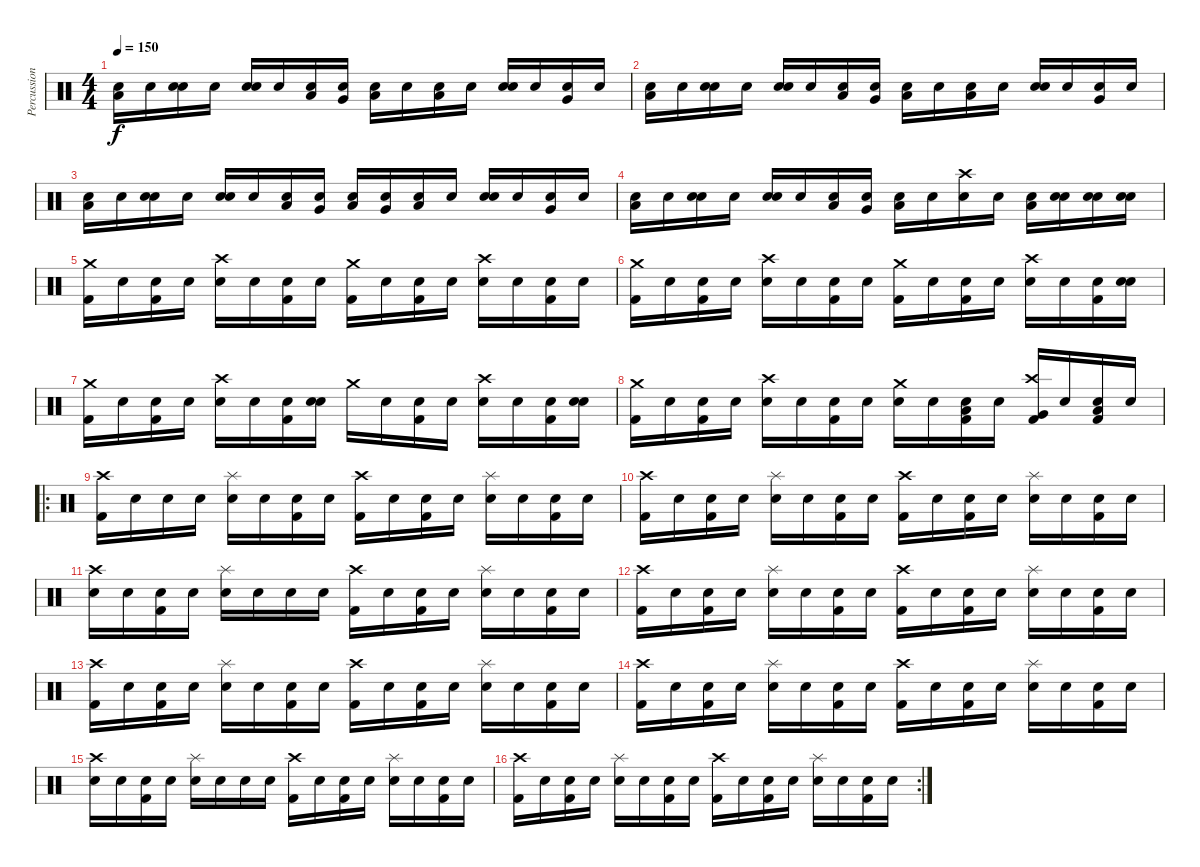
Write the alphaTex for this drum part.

\track ("Percussion" "Percussion") {instrument percussion}
\staff {score}
\articulation defaults
\ts (4 4)
\tempo 150
\clef neutral
\ks c
("Snare (hit)" "Low Floor Tom (hit)").16{dy f} "Snare (hit)".16 ("Snare (hit)" "Snare (hit)").16 "Snare (hit)".16 ("Snare (hit)" "Electric Snare (hit)").16 "Snare (hit)".16 ("Snare (hit)" "Low Tom (hit)").16 ("Snare (hit)" "Very Low Tom (hit)").16 ("Snare (hit)" "Low Floor Tom (hit)").16 "Snare (hit)".16 ("Snare (hit)" "Low Floor Tom (hit)").16 "Snare (hit)".16 ("Snare (hit)" "Electric Snare (hit)").16 "Snare (hit)".16 ("Snare (hit)" "Very Low Tom (hit)").16 "Snare (hit)".16 |
("Snare (hit)" "Low Floor Tom (hit)").16 "Snare (hit)".16 ("Snare (hit)" "Snare (hit)").16 "Snare (hit)".16 ("Snare (hit)" "Electric Snare (hit)").16 "Snare (hit)".16 ("Snare (hit)" "Low Tom (hit)").16 ("Snare (hit)" "Very Low Tom (hit)").16 ("Snare (hit)" "Low Floor Tom (hit)").16 "Snare (hit)".16 ("Snare (hit)" "Low Floor Tom (hit)").16 "Snare (hit)".16 ("Snare (hit)" "Electric Snare (hit)").16 "Snare (hit)".16 ("Snare (hit)" "Very Low Tom (hit)").16 "Snare (hit)".16 |
("Snare (hit)" "Low Floor Tom (hit)").16 "Snare (hit)".16 ("Snare (hit)" "Snare (hit)").16 "Snare (hit)".16 ("Snare (hit)" "Electric Snare (hit)").16 "Snare (hit)".16 ("Snare (hit)" "Low Tom (hit)").16 ("Snare (hit)" "Very Low Tom (hit)").16 ("Snare (hit)" "Low Floor Tom (hit)").16 ("Snare (hit)" "Very Low Tom (hit)").16 ("Snare (hit)" "Low Floor Tom (hit)").16 "Snare (hit)".16 ("Snare (hit)" "Electric Snare (hit)").16 "Snare (hit)".16 ("Snare (hit)" "Very Low Tom (hit)").16 "Snare (hit)".16 |
("Snare (hit)" "Low Floor Tom (hit)").16 "Snare (hit)".16 ("Snare (hit)" "Snare (hit)").16 "Snare (hit)".16 ("Snare (hit)" "Electric Snare (hit)").16 "Snare (hit)".16 ("Snare (hit)" "Low Tom (hit)").16 ("Snare (hit)" "Very Low Tom (hit)").16 ("Snare (hit)" "Low Floor Tom (hit)").16 "Snare (hit)".16 ("Snare (hit)" "Crash high (hit)").16 "Snare (hit)".16 ("Snare (hit)" "Low Floor Tom (hit)").16 ("Snare (hit)" "Electric Snare (hit)").16 ("Snare (hit)" "Electric Snare (hit)").16 ("Snare (hit)" "Electric Snare (hit)").16 |
("Crash medium (hit)" "Kick (hit) 2").16 "Snare (hit)".16 ("Snare (hit)" "Kick (hit) 2").16 "Snare (hit)".16 ("Crash high (hit)" "Electric Snare (hit)").16 "Snare (hit)".16 ("Snare (hit)" "Kick (hit) 2").16 "Snare (hit)".16 ("Crash medium (hit)" "Kick (hit) 2").16 "Snare (hit)".16 ("Snare (hit)" "Kick (hit) 2").16 "Snare (hit)".16 ("Crash high (hit)" "Electric Snare (hit)").16 "Snare (hit)".16 ("Snare (hit)" "Kick (hit) 2").16 "Snare (hit)".16 |
("Crash medium (hit)" "Kick (hit) 2").16 "Snare (hit)".16 ("Snare (hit)" "Kick (hit) 2").16 "Snare (hit)".16 ("Crash high (hit)" "Electric Snare (hit)").16 "Snare (hit)".16 ("Snare (hit)" "Kick (hit) 2").16 "Snare (hit)".16 ("Crash medium (hit)" "Kick (hit) 2").16 "Snare (hit)".16 ("Snare (hit)" "Kick (hit) 2").16 "Snare (hit)".16 ("Crash high (hit)" "Electric Snare (hit)").16 "Snare (hit)".16 ("Snare (hit)" "Kick (hit) 2").16 ("Snare (hit)" "Electric Snare (hit)").16 |
("Crash medium (hit)" "Kick (hit) 2").16 "Snare (hit)".16 ("Snare (hit)" "Kick (hit) 2").16 "Snare (hit)".16 ("Crash high (hit)" "Electric Snare (hit)").16 "Snare (hit)".16 ("Snare (hit)" "Kick (hit) 2").16 ("Snare (hit)" "Electric Snare (hit)").16 "Crash medium (hit)".16 "Snare (hit)".16 ("Snare (hit)" "Kick (hit) 2").16 "Snare (hit)".16 ("Crash high (hit)" "Electric Snare (hit)").16 "Snare (hit)".16 ("Snare (hit)" "Kick (hit) 2").16 ("Snare (hit)" "Electric Snare (hit)").16 |
("Crash medium (hit)" "Kick (hit) 2").16 "Snare (hit)".16 ("Snare (hit)" "Kick (hit) 2").16 "Snare (hit)".16 ("Crash high (hit)" "Electric Snare (hit)").16 "Snare (hit)".16 ("Snare (hit)" "Kick (hit) 2").16 "Snare (hit)".16 ("Crash medium (hit)" "Electric Snare (hit)").16 "Snare (hit)".16 ("Snare (hit)" "Low Tom (hit)" "Kick (hit) 2").16 "Snare (hit)".16 ("Crash high (hit)" "Very Low Tom (hit)" "Kick (hit) 2").16 "Snare (hit)".16 ("Snare (hit)" "Low Floor Tom (hit)" "Kick (hit) 2").16 "Snare (hit)".16 |
\ro
("Crash high (hit)" "Kick (hit) 2").16 "Snare (hit)".16 "Snare (hit)".16 "Snare (hit)".16 ("Splash (hit)" "Electric Snare (hit)").16 "Snare (hit)".16 ("Snare (hit)" "Kick (hit) 2").16 "Snare (hit)".16 ("Crash high (hit)" "Kick (hit) 2").16 "Snare (hit)".16 ("Snare (hit)" "Kick (hit) 2").16 "Snare (hit)".16 ("Splash (hit)" "Electric Snare (hit)").16 "Snare (hit)".16 ("Snare (hit)" "Kick (hit) 2").16 "Snare (hit)".16 |
("Crash high (hit)" "Kick (hit) 2").16 "Snare (hit)".16 ("Snare (hit)" "Kick (hit) 2").16 "Snare (hit)".16 ("Splash (hit)" "Electric Snare (hit)").16 "Snare (hit)".16 ("Snare (hit)" "Kick (hit) 2").16 "Snare (hit)".16 ("Crash high (hit)" "Kick (hit) 2").16 "Snare (hit)".16 ("Snare (hit)" "Kick (hit) 2").16 "Snare (hit)".16 ("Splash (hit)" "Electric Snare (hit)").16 "Snare (hit)".16 ("Snare (hit)" "Kick (hit) 2").16 "Snare (hit)".16 |
("Crash high (hit)" "Electric Snare (hit)").16 "Snare (hit)".16 ("Snare (hit)" "Kick (hit) 2").16 "Snare (hit)".16 ("Splash (hit)" "Electric Snare (hit)").16 "Snare (hit)".16 "Snare (hit)".16 "Snare (hit)".16 ("Crash high (hit)" "Kick (hit) 2").16 "Snare (hit)".16 ("Snare (hit)" "Kick (hit) 2").16 "Snare (hit)".16 ("Splash (hit)" "Electric Snare (hit)").16 "Snare (hit)".16 ("Snare (hit)" "Kick (hit) 2").16 "Snare (hit)".16 |
("Crash high (hit)" "Kick (hit) 2").16 "Snare (hit)".16 ("Snare (hit)" "Kick (hit) 2").16 "Snare (hit)".16 ("Splash (hit)" "Electric Snare (hit)").16 "Snare (hit)".16 ("Snare (hit)" "Kick (hit) 2").16 "Snare (hit)".16 ("Crash high (hit)" "Kick (hit) 2").16 "Snare (hit)".16 ("Snare (hit)" "Kick (hit) 2").16 "Snare (hit)".16 ("Splash (hit)" "Electric Snare (hit)").16 "Snare (hit)".16 ("Snare (hit)" "Kick (hit) 2").16 "Snare (hit)".16 |
("Crash high (hit)" "Kick (hit) 2").16 "Snare (hit)".16 ("Snare (hit)" "Kick (hit) 2").16 "Snare (hit)".16 ("Splash (hit)" "Electric Snare (hit)").16 "Snare (hit)".16 ("Snare (hit)" "Kick (hit) 2").16 "Snare (hit)".16 ("Crash high (hit)" "Kick (hit) 2").16 "Snare (hit)".16 ("Snare (hit)" "Kick (hit) 2").16 "Snare (hit)".16 ("Splash (hit)" "Electric Snare (hit)").16 "Snare (hit)".16 ("Snare (hit)" "Kick (hit) 2").16 "Snare (hit)".16 |
("Crash high (hit)" "Kick (hit) 2").16 "Snare (hit)".16 ("Snare (hit)" "Kick (hit) 2").16 "Snare (hit)".16 ("Splash (hit)" "Electric Snare (hit)").16 "Snare (hit)".16 ("Snare (hit)" "Kick (hit) 2").16 "Snare (hit)".16 ("Crash high (hit)" "Kick (hit) 2").16 "Snare (hit)".16 ("Snare (hit)" "Kick (hit) 2").16 "Snare (hit)".16 ("Splash (hit)" "Electric Snare (hit)").16 "Snare (hit)".16 ("Snare (hit)" "Kick (hit) 2").16 "Snare (hit)".16 |
("Crash high (hit)" "Electric Snare (hit)").16 "Snare (hit)".16 ("Snare (hit)" "Kick (hit) 2").16 "Snare (hit)".16 ("Splash (hit)" "Electric Snare (hit)").16 "Snare (hit)".16 "Snare (hit)".16 "Snare (hit)".16 ("Crash high (hit)" "Kick (hit) 2").16 "Snare (hit)".16 ("Snare (hit)" "Kick (hit) 2").16 "Snare (hit)".16 ("Splash (hit)" "Electric Snare (hit)").16 "Snare (hit)".16 ("Snare (hit)" "Kick (hit) 2").16 "Snare (hit)".16 |
\rc 2
("Crash high (hit)" "Kick (hit) 2").16 "Snare (hit)".16 ("Snare (hit)" "Kick (hit) 2").16 "Snare (hit)".16 ("Splash (hit)" "Electric Snare (hit)").16 "Snare (hit)".16 ("Snare (hit)" "Kick (hit) 2").16 "Snare (hit)".16 ("Crash high (hit)" "Kick (hit) 2").16 "Snare (hit)".16 ("Snare (hit)" "Kick (hit) 2").16 "Snare (hit)".16 ("Splash (hit)" "Electric Snare (hit)").16 "Snare (hit)".16 ("Snare (hit)" "Kick (hit) 2").16 "Snare (hit)".16
